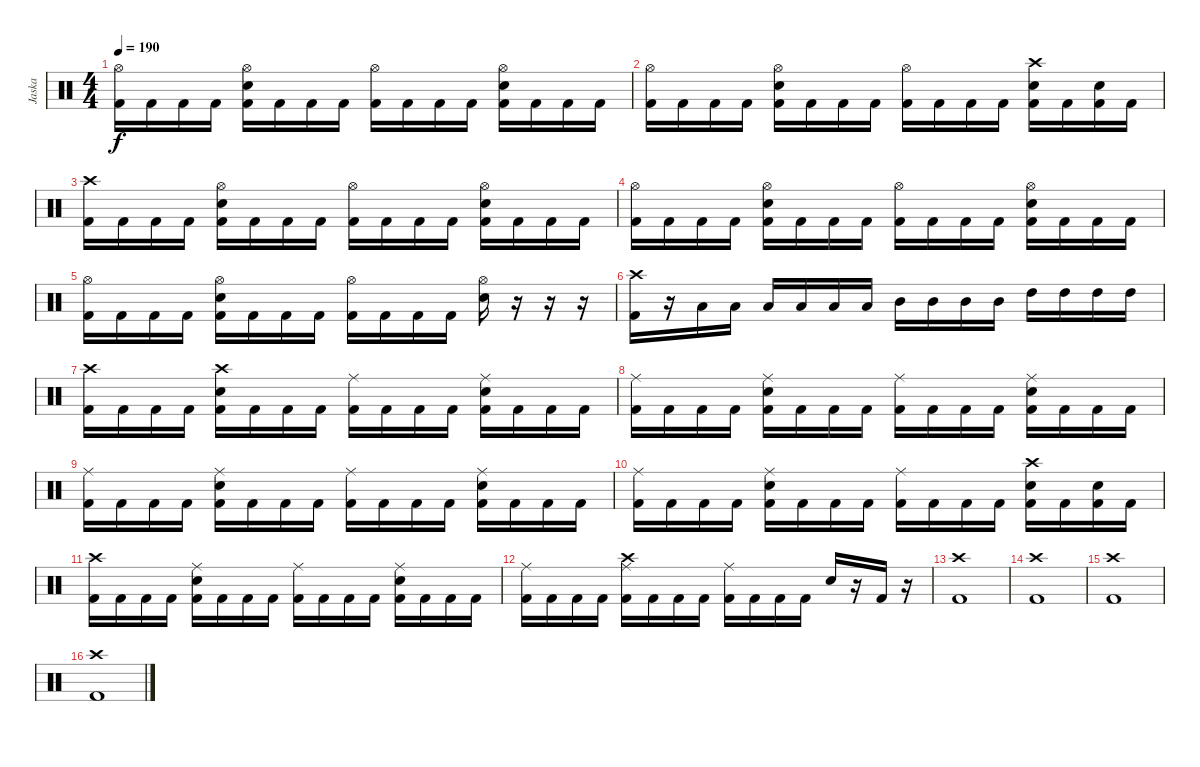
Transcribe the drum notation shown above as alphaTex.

\track ("Jaska" "Jaska") {instrument percussion}
\staff {score}
\articulation defaults
\ts (4 4)
\tempo 190
\clef neutral
\ks c
("Hi-Hat (open)" "Kick (hit) 2").16{dy f} "Kick (hit) 2".16 "Kick (hit) 2".16 "Kick (hit) 2".16 ("Hi-Hat (open)" "Electric Snare (hit)" "Kick (hit) 2").16 "Kick (hit) 2".16 "Kick (hit) 2".16 "Kick (hit) 2".16 ("Hi-Hat (open)" "Kick (hit) 2").16 "Kick (hit) 2".16 "Kick (hit) 2".16 "Kick (hit) 2".16 ("Hi-Hat (open)" "Electric Snare (hit)" "Kick (hit) 2").16 "Kick (hit) 2".16 "Kick (hit) 2".16 "Kick (hit) 2".16 |
("Hi-Hat (open)" "Kick (hit) 2").16 "Kick (hit) 2".16 "Kick (hit) 2".16 "Kick (hit) 2".16 ("Hi-Hat (open)" "Electric Snare (hit)" "Kick (hit) 2").16 "Kick (hit) 2".16 "Kick (hit) 2".16 "Kick (hit) 2".16 ("Hi-Hat (open)" "Kick (hit) 2").16 "Kick (hit) 2".16 "Kick (hit) 2".16 "Kick (hit) 2".16 ("Crash high (hit)" "Electric Snare (hit)" "Kick (hit) 2").16 "Kick (hit) 2".16 ("Electric Snare (hit)" "Kick (hit) 2").16 "Kick (hit) 2".16 |
("Crash high (hit)" "Kick (hit) 2").16 "Kick (hit) 2".16 "Kick (hit) 2".16 "Kick (hit) 2".16 ("Hi-Hat (open)" "Electric Snare (hit)" "Kick (hit) 2").16 "Kick (hit) 2".16 "Kick (hit) 2".16 "Kick (hit) 2".16 ("Hi-Hat (open)" "Kick (hit) 2").16 "Kick (hit) 2".16 "Kick (hit) 2".16 "Kick (hit) 2".16 ("Hi-Hat (open)" "Electric Snare (hit)" "Kick (hit) 2").16 "Kick (hit) 2".16 "Kick (hit) 2".16 "Kick (hit) 2".16 |
("Hi-Hat (open)" "Kick (hit) 2").16 "Kick (hit) 2".16 "Kick (hit) 2".16 "Kick (hit) 2".16 ("Hi-Hat (open)" "Electric Snare (hit)" "Kick (hit) 2").16 "Kick (hit) 2".16 "Kick (hit) 2".16 "Kick (hit) 2".16 ("Hi-Hat (open)" "Kick (hit) 2").16 "Kick (hit) 2".16 "Kick (hit) 2".16 "Kick (hit) 2".16 ("Hi-Hat (open)" "Electric Snare (hit)" "Kick (hit) 2").16 "Kick (hit) 2".16 "Kick (hit) 2".16 "Kick (hit) 2".16 |
("Hi-Hat (open)" "Kick (hit) 2").16 "Kick (hit) 2".16 "Kick (hit) 2".16 "Kick (hit) 2".16 ("Hi-Hat (open)" "Electric Snare (hit)" "Kick (hit) 2").16 "Kick (hit) 2".16 "Kick (hit) 2".16 "Kick (hit) 2".16 ("Hi-Hat (open)" "Kick (hit) 2").16 "Kick (hit) 2".16 "Kick (hit) 2".16 "Kick (hit) 2".16 ("Hi-Hat (open)" "Electric Snare (hit)").16 r.16 r.16 r.16 |
("Crash high (hit)" "Kick (hit) 2").16 r.16 "Low Tom (hit)".16 "Low Tom (hit)".16 "Low Tom (hit)".16 "Low Tom (hit)".16 "Low Tom (hit)".16 "Low Tom (hit)".16 "Mid Tom (hit)".16 "Mid Tom (hit)".16 "Mid Tom (hit)".16 "Mid Tom (hit)".16 "High Tom (hit)".16 "High Tom (hit)".16 "High Tom (hit)".16 "High Tom (hit)".16 |
("Crash high (hit)" "Kick (hit) 2").16 "Kick (hit) 2".16 "Kick (hit) 2".16 "Kick (hit) 2".16 ("Crash high (hit)" "Electric Snare (hit)" "Kick (hit) 2").16 "Kick (hit) 2".16 "Kick (hit) 2".16 "Kick (hit) 2".16 ("Ride (middle)" "Kick (hit) 2").16 "Kick (hit) 2".16 "Kick (hit) 2".16 "Kick (hit) 2".16 ("Ride (middle)" "Electric Snare (hit)" "Kick (hit) 2").16 "Kick (hit) 2".16 "Kick (hit) 2".16 "Kick (hit) 2".16 |
("Ride (middle)" "Kick (hit) 2").16 "Kick (hit) 2".16 "Kick (hit) 2".16 "Kick (hit) 2".16 ("Ride (middle)" "Electric Snare (hit)" "Kick (hit) 2").16 "Kick (hit) 2".16 "Kick (hit) 2".16 "Kick (hit) 2".16 ("Ride (middle)" "Kick (hit) 2").16 "Kick (hit) 2".16 "Kick (hit) 2".16 "Kick (hit) 2".16 ("Ride (middle)" "Electric Snare (hit)" "Kick (hit) 2").16 "Kick (hit) 2".16 "Kick (hit) 2".16 "Kick (hit) 2".16 |
("Ride (middle)" "Kick (hit) 2").16 "Kick (hit) 2".16 "Kick (hit) 2".16 "Kick (hit) 2".16 ("Ride (middle)" "Electric Snare (hit)" "Kick (hit) 2").16 "Kick (hit) 2".16 "Kick (hit) 2".16 "Kick (hit) 2".16 ("Ride (middle)" "Kick (hit) 2").16 "Kick (hit) 2".16 "Kick (hit) 2".16 "Kick (hit) 2".16 ("Ride (middle)" "Electric Snare (hit)" "Kick (hit) 2").16 "Kick (hit) 2".16 "Kick (hit) 2".16 "Kick (hit) 2".16 |
("Ride (middle)" "Kick (hit) 2").16 "Kick (hit) 2".16 "Kick (hit) 2".16 "Kick (hit) 2".16 ("Ride (middle)" "Electric Snare (hit)" "Kick (hit) 2").16 "Kick (hit) 2".16 "Kick (hit) 2".16 "Kick (hit) 2".16 ("Ride (middle)" "Kick (hit) 2").16 "Kick (hit) 2".16 "Kick (hit) 2".16 "Kick (hit) 2".16 ("Crash high (hit)" "Electric Snare (hit)" "Kick (hit) 2").16 "Kick (hit) 2".16 ("Electric Snare (hit)" "Kick (hit) 2").16 "Kick (hit) 2".16 |
("Crash high (hit)" "Kick (hit) 2").16 "Kick (hit) 2".16 "Kick (hit) 2".16 "Kick (hit) 2".16 ("Ride (middle)" "Electric Snare (hit)" "Kick (hit) 2").16 "Kick (hit) 2".16 "Kick (hit) 2".16 "Kick (hit) 2".16 ("Ride (middle)" "Kick (hit) 2").16 "Kick (hit) 2".16 "Kick (hit) 2".16 "Kick (hit) 2".16 ("Ride (middle)" "Electric Snare (hit)" "Kick (hit) 2").16 "Kick (hit) 2".16 "Kick (hit) 2".16 "Kick (hit) 2".16 |
("Ride (middle)" "Kick (hit) 2").16 "Kick (hit) 2".16 "Kick (hit) 2".16 "Kick (hit) 2".16 ("Ride (middle)" "Crash high (hit)" "Kick (hit) 2").16 "Kick (hit) 2".16 "Kick (hit) 2".16 "Kick (hit) 2".16 ("Ride (middle)" "Kick (hit) 2").16 "Kick (hit) 2".16 "Kick (hit) 2".16 "Kick (hit) 2".16 "Electric Snare (hit)".16 r.16 "Kick (hit) 2".16 r.16 |
("Crash high (hit)" "Kick (hit) 2").1 |
("Crash high (hit)" "Kick (hit) 2").1 |
("Crash high (hit)" "Kick (hit) 2").1 |
("Crash high (hit)" "Kick (hit) 2").1
